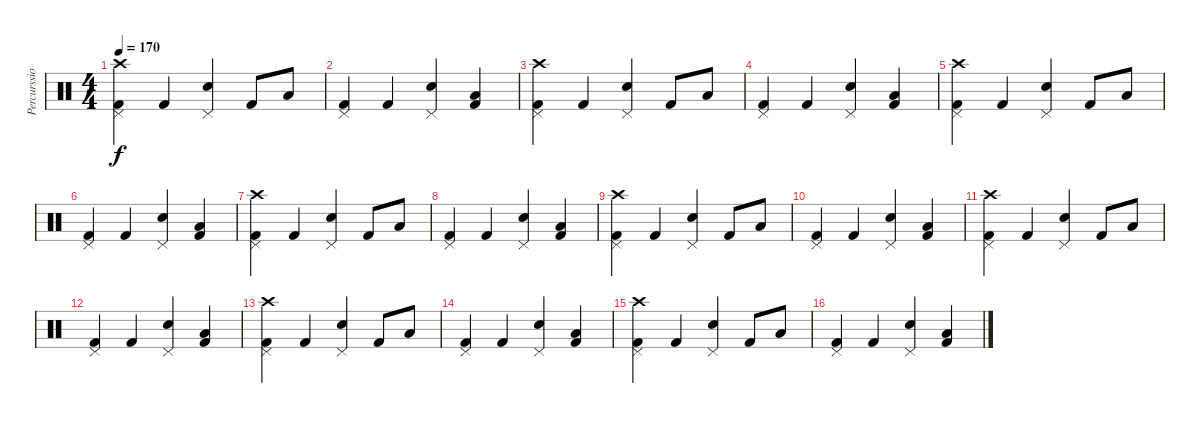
\track ("Percurssion" "Percurssio") {instrument percussion}
\staff {score}
\articulation defaults
\ts (4 4)
\tempo 170
\clef neutral
\ks c
("Crash high (hit)" "Pedal Hi-Hat (hit)" "Kick (hit) 2").4{dy f} "Kick (hit) 2".4 ("Pedal Hi-Hat (hit)" "Electric Snare (hit)").4 "Kick (hit) 2".8 "Low Tom (hit)".8 |
("Pedal Hi-Hat (hit)" "Kick (hit) 2").4 "Kick (hit) 2".4 ("Pedal Hi-Hat (hit)" "Electric Snare (hit)").4 ("Low Tom (hit)" "Kick (hit) 2").4{bu 240} |
("Crash high (hit)" "Pedal Hi-Hat (hit)" "Kick (hit) 2").4 "Kick (hit) 2".4 ("Pedal Hi-Hat (hit)" "Electric Snare (hit)").4 "Kick (hit) 2".8 "Low Tom (hit)".8 |
("Pedal Hi-Hat (hit)" "Kick (hit) 2").4 "Kick (hit) 2".4 ("Pedal Hi-Hat (hit)" "Electric Snare (hit)").4 ("Low Tom (hit)" "Kick (hit) 2").4{bu 240} |
("Crash high (hit)" "Pedal Hi-Hat (hit)" "Kick (hit) 2").4 "Kick (hit) 2".4 ("Pedal Hi-Hat (hit)" "Electric Snare (hit)").4 "Kick (hit) 2".8 "Low Tom (hit)".8 |
("Pedal Hi-Hat (hit)" "Kick (hit) 2").4 "Kick (hit) 2".4 ("Pedal Hi-Hat (hit)" "Electric Snare (hit)").4 ("Low Tom (hit)" "Kick (hit) 2").4{bu 240} |
("Crash high (hit)" "Pedal Hi-Hat (hit)" "Kick (hit) 2").4 "Kick (hit) 2".4 ("Pedal Hi-Hat (hit)" "Electric Snare (hit)").4 "Kick (hit) 2".8 "Low Tom (hit)".8 |
("Pedal Hi-Hat (hit)" "Kick (hit) 2").4 "Kick (hit) 2".4 ("Pedal Hi-Hat (hit)" "Electric Snare (hit)").4 ("Low Tom (hit)" "Kick (hit) 2").4{bu 240} |
("Crash high (hit)" "Pedal Hi-Hat (hit)" "Kick (hit) 2").4 "Kick (hit) 2".4 ("Pedal Hi-Hat (hit)" "Electric Snare (hit)").4 "Kick (hit) 2".8 "Low Tom (hit)".8 |
("Pedal Hi-Hat (hit)" "Kick (hit) 2").4 "Kick (hit) 2".4 ("Pedal Hi-Hat (hit)" "Electric Snare (hit)").4 ("Low Tom (hit)" "Kick (hit) 2").4{bu 240} |
("Crash high (hit)" "Pedal Hi-Hat (hit)" "Kick (hit) 2").4 "Kick (hit) 2".4 ("Pedal Hi-Hat (hit)" "Electric Snare (hit)").4 "Kick (hit) 2".8 "Low Tom (hit)".8 |
("Pedal Hi-Hat (hit)" "Kick (hit) 2").4 "Kick (hit) 2".4 ("Pedal Hi-Hat (hit)" "Electric Snare (hit)").4 ("Low Tom (hit)" "Kick (hit) 2").4{bu 240} |
("Crash high (hit)" "Pedal Hi-Hat (hit)" "Kick (hit) 2").4 "Kick (hit) 2".4 ("Pedal Hi-Hat (hit)" "Electric Snare (hit)").4 "Kick (hit) 2".8 "Low Tom (hit)".8 |
("Pedal Hi-Hat (hit)" "Kick (hit) 2").4 "Kick (hit) 2".4 ("Pedal Hi-Hat (hit)" "Electric Snare (hit)").4 ("Low Tom (hit)" "Kick (hit) 2").4{bu 240} |
("Crash high (hit)" "Pedal Hi-Hat (hit)" "Kick (hit) 2").4 "Kick (hit) 2".4 ("Pedal Hi-Hat (hit)" "Electric Snare (hit)").4 "Kick (hit) 2".8 "Low Tom (hit)".8 |
("Pedal Hi-Hat (hit)" "Kick (hit) 2").4 "Kick (hit) 2".4 ("Pedal Hi-Hat (hit)" "Electric Snare (hit)").4 ("Low Tom (hit)" "Kick (hit) 2").4{bu 240}
